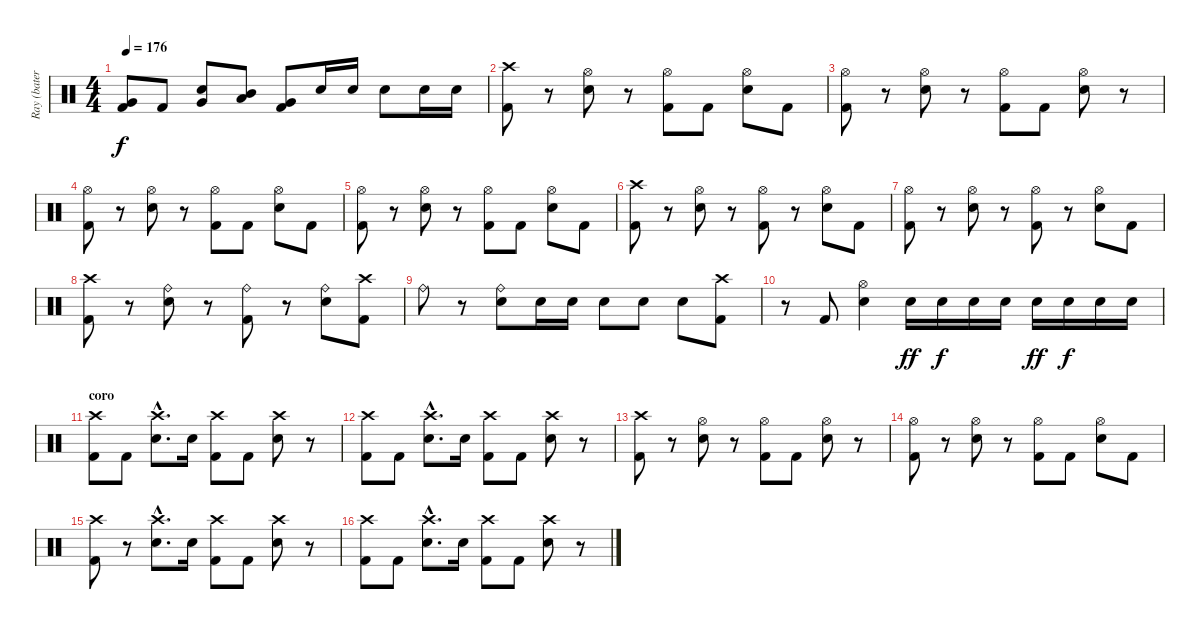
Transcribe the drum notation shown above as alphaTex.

\track ("Ray (batería)" "Ray (bater") {instrument percussion}
\staff {score}
\articulation defaults
\ts (4 4)
\tempo 176
\clef neutral
\ks c
("Very Low Tom (hit)" "Kick (hit) 2").8{dy f} "Kick (hit) 2".8 ("Snare (hit) 2" "Very Low Tom (hit)").8 ("Mid Tom (hit)" "Low Tom (hit)").8 ("Very Low Tom (hit)" "Kick (hit) 2").8 "Snare (hit) 2".16 "Snare (hit) 2".16 "Snare (hit) 2".8 "Snare (hit) 2".16 "Snare (hit) 2".16 |
("Crash high (hit)" "Kick (hit) 2").8 r.8 ("Hi-Hat (open)" "Snare (hit) 2").8 r.8 ("Hi-Hat (open)" "Kick (hit) 2").8 "Kick (hit) 2".8 ("Hi-Hat (open)" "Snare (hit) 2").8 "Kick (hit) 2".8 |
("Hi-Hat (open)" "Kick (hit) 2").8 r.8 ("Hi-Hat (open)" "Snare (hit) 2").8 r.8 ("Hi-Hat (open)" "Kick (hit) 2").8 "Kick (hit) 2".8 ("Hi-Hat (open)" "Snare (hit) 2").8 r.8 |
("Hi-Hat (open)" "Kick (hit) 2").8 r.8 ("Hi-Hat (open)" "Snare (hit) 2").8 r.8 ("Hi-Hat (open)" "Kick (hit) 2").8 "Kick (hit) 2".8 ("Hi-Hat (open)" "Snare (hit) 2").8 "Kick (hit) 2".8 |
("Hi-Hat (open)" "Kick (hit) 2").8 r.8 ("Hi-Hat (open)" "Snare (hit) 2").8 r.8 ("Hi-Hat (open)" "Kick (hit) 2").8 "Kick (hit) 2".8 ("Hi-Hat (open)" "Snare (hit) 2").8 "Kick (hit) 2".8 |
("Crash high (hit)" "Kick (hit) 2").8 r.8 ("Hi-Hat (open)" "Snare (hit) 2").8 r.8 ("Hi-Hat (open)" "Kick (hit) 2").8 r.8 ("Hi-Hat (open)" "Snare (hit) 2").8 "Kick (hit) 2".8 |
("Hi-Hat (open)" "Kick (hit) 2").8 r.8 ("Hi-Hat (open)" "Snare (hit) 2").8 r.8 ("Hi-Hat (open)" "Kick (hit) 2").8 r.8 ("Hi-Hat (open)" "Snare (hit) 2").8 "Kick (hit) 2".8 |
("Crash high (hit)" "Kick (hit) 2").8 r.8 ("Ride (bell)" "Snare (hit) 2").8 r.8 ("Ride (bell)" "Kick (hit) 2").8 r.8 ("Ride (bell)" "Snare (hit) 2").8 ("Crash high (hit)" "Kick (hit) 2").8 |
"Ride (bell)".8 r.8 ("Ride (bell)" "Snare (hit) 2").8 "Snare (hit) 2".16 "Snare (hit) 2".16 "Snare (hit) 2".8 "Snare (hit) 2".8 "Snare (hit) 2".8 ("Crash high (hit)" "Kick (hit) 2").8 |
r.8 "Kick (hit) 2".8 ("Hi-Hat (open)" "Snare (hit) 2").4 "Snare (hit) 2".16{dy ff} "Snare (hit) 2".16{dy f} "Snare (hit) 2".16 "Snare (hit) 2".16 "Snare (hit) 2".16{dy ff} "Snare (hit) 2".16{dy f} "Snare (hit) 2".16 "Snare (hit) 2".16 |
\section ("" "coro")
("Crash high (hit)" "Kick (hit) 2").8 "Kick (hit) 2".8 ("Crash high (hit)"{hac} "Snare (hit) 2"{hac}).8{d} "Snare (hit) 2".16 ("Crash high (hit)" "Kick (hit) 2").8 "Kick (hit) 2".8 ("Crash high (hit)" "Snare (hit) 2").8 r.8 |
("Crash high (hit)" "Kick (hit) 2").8 "Kick (hit) 2".8 ("Crash high (hit)"{hac} "Snare (hit) 2"{hac}).8{d} "Snare (hit) 2".16 ("Crash high (hit)" "Kick (hit) 2").8 "Kick (hit) 2".8 ("Crash high (hit)" "Snare (hit) 2").8 r.8 |
("Crash high (hit)" "Kick (hit) 2").8 r.8 ("Hi-Hat (open)" "Snare (hit) 2").8 r.8 ("Hi-Hat (open)" "Kick (hit) 2").8 "Kick (hit) 2".8 ("Hi-Hat (open)" "Snare (hit) 2").8 r.8 |
("Hi-Hat (open)" "Kick (hit) 2").8 r.8 ("Hi-Hat (open)" "Snare (hit) 2").8 r.8 ("Hi-Hat (open)" "Kick (hit) 2").8 "Kick (hit) 2".8 ("Hi-Hat (open)" "Snare (hit) 2").8 "Kick (hit) 2".8 |
("Crash high (hit)" "Kick (hit) 2").8 r.8 ("Crash high (hit)"{hac} "Snare (hit) 2"{hac}).8{d} "Snare (hit) 2".16 ("Crash high (hit)" "Kick (hit) 2").8 "Kick (hit) 2".8 ("Crash high (hit)" "Snare (hit) 2").8 r.8 |
("Crash high (hit)" "Kick (hit) 2").8 "Kick (hit) 2".8 ("Crash high (hit)"{hac} "Snare (hit) 2"{hac}).8{d} "Snare (hit) 2".16 ("Crash high (hit)" "Kick (hit) 2").8 "Kick (hit) 2".8 ("Crash high (hit)" "Snare (hit) 2").8 r.8
